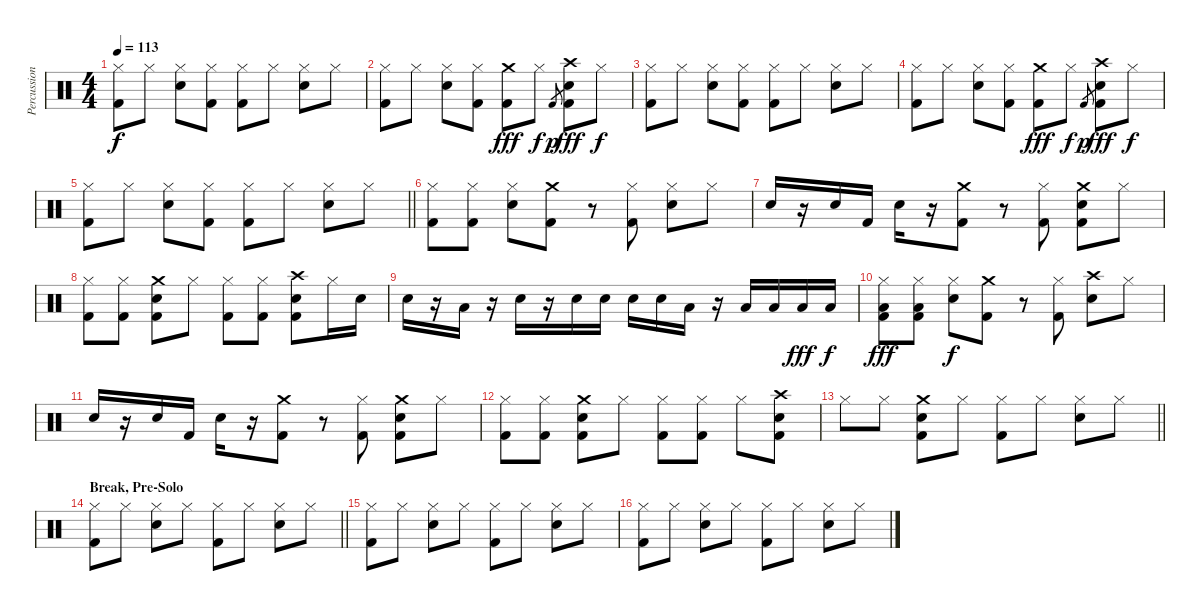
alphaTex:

\track ("Percussion" "Percussion") {instrument percussion}
\staff {score}
\articulation defaults
\ts (4 4)
\tempo 113
\clef neutral
\ks c
("Hi-Hat (closed)" "Kick (hit) 2").8{dy f} "Hi-Hat (closed)".8 ("Hi-Hat (closed)" "Snare (hit) 2").8 ("Hi-Hat (closed)" "Kick (hit) 2").8 ("Hi-Hat (closed)" "Kick (hit) 2").8 "Hi-Hat (closed)".8 ("Hi-Hat (closed)" "Snare (hit) 2").8 "Hi-Hat (closed)".8 |
("Hi-Hat (closed)" "Kick (hit) 2").8 "Hi-Hat (closed)".8 ("Hi-Hat (closed)" "Snare (hit) 2").8 ("Hi-Hat (closed)" "Kick (hit) 2").8 ("Crash medium (hit)" "Kick (hit) 2").8{dy fff} "Hi-Hat (closed)".8{dy f} "Kick (hit) 2".8{gr dy p} ("Crash high (hit)" "Snare (hit) 2" "Kick (hit) 2").8{dy fff} "Hi-Hat (closed)".8{dy f} |
("Hi-Hat (closed)" "Kick (hit) 2").8 "Hi-Hat (closed)".8 ("Hi-Hat (closed)" "Snare (hit) 2").8 ("Hi-Hat (closed)" "Kick (hit) 2").8 ("Hi-Hat (closed)" "Kick (hit) 2").8 "Hi-Hat (closed)".8 ("Hi-Hat (closed)" "Snare (hit) 2").8 "Hi-Hat (closed)".8 |
("Hi-Hat (closed)" "Kick (hit) 2").8 "Hi-Hat (closed)".8 ("Hi-Hat (closed)" "Snare (hit) 2").8 ("Hi-Hat (closed)" "Kick (hit) 2").8 ("Crash medium (hit)" "Kick (hit) 2").8{dy fff} "Hi-Hat (closed)".8{dy f} "Kick (hit) 2".8{gr dy p} ("Crash high (hit)" "Snare (hit) 2" "Kick (hit) 2").8{dy fff} "Hi-Hat (closed)".8{dy f} |
\barLineRight lightlight
("Hi-Hat (closed)" "Kick (hit) 2").8 "Hi-Hat (closed)".8 ("Hi-Hat (closed)" "Snare (hit) 2").8 ("Hi-Hat (closed)" "Kick (hit) 2").8 ("Hi-Hat (closed)" "Kick (hit) 2").8 "Hi-Hat (closed)".8 ("Hi-Hat (closed)" "Snare (hit) 2").8 "Hi-Hat (closed)".8 |
("Hi-Hat (closed)" "Kick (hit) 2").8 ("Hi-Hat (closed)" "Kick (hit) 2").8 ("Hi-Hat (closed)" "Snare (hit) 2").8 ("Crash medium (hit)" "Kick (hit) 2").8 r.8 ("Hi-Hat (closed)" "Kick (hit) 2").8 ("Hi-Hat (closed)" "Snare (hit) 2").8 "Hi-Hat (closed)".8 |
"Snare (hit) 2".16 r.16 "Snare (hit) 2".16 "Kick (hit) 2".16 "Snare (hit) 2".16 r.16 ("Crash medium (hit)" "Kick (hit) 2").8 r.8 ("Hi-Hat (closed)" "Kick (hit) 2").8 ("Crash medium (hit)" "Snare (hit) 2" "Kick (hit) 2").8 "Hi-Hat (closed)".8 |
("Hi-Hat (closed)" "Kick (hit) 2").8 ("Hi-Hat (closed)" "Kick (hit) 2").8 ("Crash medium (hit)" "Snare (hit) 2" "Kick (hit) 2").8 "Hi-Hat (closed)".8 ("Hi-Hat (closed)" "Kick (hit) 2").8 ("Hi-Hat (closed)" "Kick (hit) 2").8 ("Crash high (hit)" "Snare (hit) 2" "Kick (hit) 2").8 "Hi-Hat (closed)".16 "Snare (hit) 2".16 |
"Snare (hit) 2".16 r.16 "Low Tom (hit)".16 r.16 "Snare (hit) 2".16 r.16 "Snare (hit) 2".16 "Snare (hit) 2".16 "Snare (hit) 2".16 "Snare (hit) 2".16 "Low Tom (hit)".16 r.16 "Low Tom (hit)".16 "Low Tom (hit)".16 "Low Tom (hit)".16{dy fff} "Low Tom (hit)".16{dy f} |
("Hi-Hat (closed)" "Low Floor Tom (hit)" "Kick (hit) 2").8{dy fff} ("Hi-Hat (closed)" "Low Floor Tom (hit)" "Kick (hit) 2").8 ("Hi-Hat (closed)" "Snare (hit) 2").8{dy f} ("Crash medium (hit)" "Kick (hit) 2").8 r.8 ("Hi-Hat (closed)" "Kick (hit) 2").8 ("Crash high (hit)" "Snare (hit) 2").8 "Hi-Hat (closed)".8 |
"Snare (hit) 2".16 r.16 "Snare (hit) 2".16 "Kick (hit) 2".16 "Snare (hit) 2".16 r.16 ("Crash medium (hit)" "Kick (hit) 2").8 r.8 ("Hi-Hat (closed)" "Kick (hit) 2").8 ("Crash medium (hit)" "Snare (hit) 2" "Kick (hit) 2").8 "Hi-Hat (closed)".8 |
("Hi-Hat (closed)" "Kick (hit) 2").8 ("Hi-Hat (closed)" "Kick (hit) 2").8 ("Crash medium (hit)" "Snare (hit) 2" "Kick (hit) 2").8 "Hi-Hat (closed)".8 ("Hi-Hat (closed)" "Kick (hit) 2").8 ("Hi-Hat (closed)" "Kick (hit) 2").8 "Hi-Hat (closed)".8 ("Crash high (hit)" "Snare (hit) 2" "Kick (hit) 2").8 |
\barLineRight lightlight "Hi-Hat (closed)".8 "Hi-Hat (closed)".8
("Crash medium (hit)" "Snare (hit) 2" "Kick (hit) 2").8 "Hi-Hat (closed)".8 ("Hi-Hat (closed)" "Kick (hit) 2").8 "Hi-Hat (closed)".8 ("Hi-Hat (closed)" "Snare (hit) 2").8 "Hi-Hat (closed)".8 |
\section ("" "Break, Pre-Solo")
\barLineRight lightlight
("Hi-Hat (closed)" "Kick (hit) 2").8 "Hi-Hat (closed)".8 ("Hi-Hat (closed)" "Snare (hit) 2").8 "Hi-Hat (closed)".8 ("Hi-Hat (closed)" "Kick (hit) 2").8 "Hi-Hat (closed)".8 ("Hi-Hat (closed)" "Snare (hit) 2").8 "Hi-Hat (closed)".8 |
("Hi-Hat (closed)" "Kick (hit) 2").8 "Hi-Hat (closed)".8 ("Hi-Hat (closed)" "Snare (hit) 2").8 "Hi-Hat (closed)".8 ("Hi-Hat (closed)" "Kick (hit) 2").8 "Hi-Hat (closed)".8 ("Hi-Hat (closed)" "Snare (hit) 2").8 "Hi-Hat (closed)".8 |
("Hi-Hat (closed)" "Kick (hit) 2").8 "Hi-Hat (closed)".8 ("Hi-Hat (closed)" "Snare (hit) 2").8 "Hi-Hat (closed)".8 ("Hi-Hat (closed)" "Kick (hit) 2").8 "Hi-Hat (closed)".8 ("Hi-Hat (closed)" "Snare (hit) 2").8 "Hi-Hat (closed)".8
